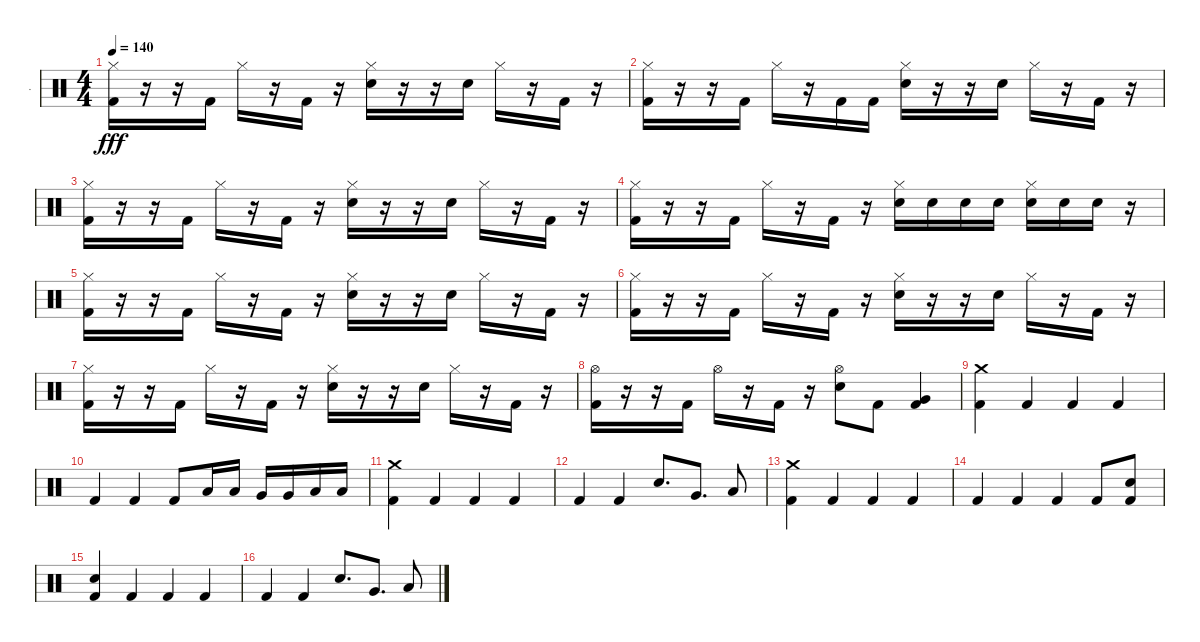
\track ("." ".") {instrument percussion}
\staff {score}
\articulation defaults
\ts (4 4)
\tempo 140
\clef neutral
\ks c
("Hi-Hat (closed)" "Kick (hit) 2").16{dy fff} r.16 r.16 "Kick (hit) 2".16 "Hi-Hat (closed)".16 r.16 "Kick (hit) 2".16 r.16 ("Hi-Hat (closed)" "Electric Snare (hit)").16 r.16 r.16 "Electric Snare (hit)".16 "Hi-Hat (closed)".16 r.16 "Kick (hit) 2".16 r.16 |
("Hi-Hat (closed)" "Kick (hit) 2").16 r.16 r.16 "Kick (hit) 2".16 "Hi-Hat (closed)".16 r.16 "Kick (hit) 2".16 "Kick (hit) 2".16 ("Hi-Hat (closed)" "Electric Snare (hit)").16 r.16 r.16 "Electric Snare (hit)".16 "Hi-Hat (closed)".16 r.16 "Kick (hit) 2".16 r.16 |
("Hi-Hat (closed)" "Kick (hit) 2").16 r.16 r.16 "Kick (hit) 2".16 "Hi-Hat (closed)".16 r.16 "Kick (hit) 2".16 r.16 ("Hi-Hat (closed)" "Electric Snare (hit)").16 r.16 r.16 "Electric Snare (hit)".16 "Hi-Hat (closed)".16 r.16 "Kick (hit) 2".16 r.16 |
("Hi-Hat (closed)" "Kick (hit) 2").16 r.16 r.16 "Kick (hit) 2".16 "Hi-Hat (closed)".16 r.16 "Kick (hit) 2".16 r.16 ("Hi-Hat (closed)" "Electric Snare (hit)").16 "Electric Snare (hit)".16 "Electric Snare (hit)".16 "Electric Snare (hit)".16 ("Hi-Hat (closed)" "Electric Snare (hit)").16 "Electric Snare (hit)".16 "Electric Snare (hit)".16 r.16 |
("Hi-Hat (closed)" "Kick (hit) 2").16 r.16 r.16 "Kick (hit) 2".16 "Hi-Hat (closed)".16 r.16 "Kick (hit) 2".16 r.16 ("Hi-Hat (closed)" "Electric Snare (hit)").16 r.16 r.16 "Electric Snare (hit)".16 "Hi-Hat (closed)".16 r.16 "Kick (hit) 2".16 r.16 |
("Hi-Hat (closed)" "Kick (hit) 2").16 r.16 r.16 "Kick (hit) 2".16 "Hi-Hat (closed)".16 r.16 "Kick (hit) 2".16 r.16 ("Hi-Hat (closed)" "Electric Snare (hit)").16 r.16 r.16 "Electric Snare (hit)".16 "Hi-Hat (closed)".16 r.16 "Kick (hit) 2".16 r.16 |
("Hi-Hat (closed)" "Kick (hit) 2").16 r.16 r.16 "Kick (hit) 2".16 "Hi-Hat (closed)".16 r.16 "Kick (hit) 2".16 r.16 ("Hi-Hat (closed)" "Electric Snare (hit)").16 r.16 r.16 "Electric Snare (hit)".16 "Hi-Hat (closed)".16 r.16 "Kick (hit) 2".16 r.16 |
("Hi-Hat (open)" "Kick (hit) 2").16 r.16 r.16 "Kick (hit) 2".16 "Hi-Hat (open)".16 r.16 "Kick (hit) 2".16 r.16 ("Hi-Hat (open)" "Electric Snare (hit)").8 "Kick (hit) 2".8 ("Very Low Tom (hit)" "Kick (hit) 2").4 |
("Crash medium (hit)" "Kick (hit) 2").4 "Kick (hit) 2".4 "Kick (hit) 2".4 "Kick (hit) 2".4 |
"Kick (hit) 2".4 "Kick (hit) 2".4 "Kick (hit) 2".8 "Low Tom (hit)".16 "Low Tom (hit)".16 "Very Low Tom (hit)".16 "Very Low Tom (hit)".16 "Low Floor Tom (hit)".16 "Low Floor Tom (hit)".16 |
("Crash medium (hit)" "Kick (hit) 2").4 "Kick (hit) 2".4 "Kick (hit) 2".4 "Kick (hit) 2".4 |
"Kick (hit) 2".4 "Kick (hit) 2".4 "Electric Snare (hit)".8{d} "Very Low Tom (hit)".8{d} "Low Floor Tom (hit)".8 |
("Crash medium (hit)" "Kick (hit) 2").4 "Kick (hit) 2".4 "Kick (hit) 2".4 "Kick (hit) 2".4 |
"Kick (hit) 2".4 "Kick (hit) 2".4 "Kick (hit) 2".4 "Kick (hit) 2".8 ("Electric Snare (hit)" "Kick (hit) 2").8 |
("Electric Snare (hit)" "Kick (hit) 2").4 "Kick (hit) 2".4 "Kick (hit) 2".4 "Kick (hit) 2".4 |
"Kick (hit) 2".4 "Kick (hit) 2".4 "Electric Snare (hit)".8{d} "Very Low Tom (hit)".8{d} "Low Floor Tom (hit)".8
